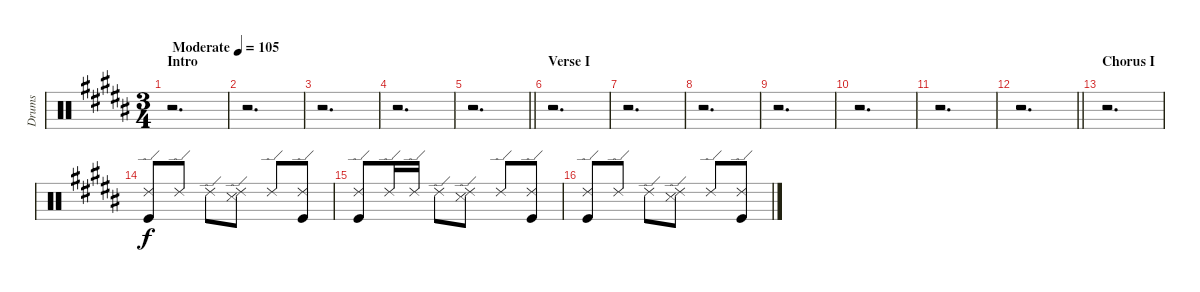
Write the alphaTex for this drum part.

\track ("Drums" "Drums") {instrument percussion}
\staff {score}
\articulation defaults
\ts (3 4)
\section ("" "Intro")
\tempo (105 "Moderate")
\clef neutral
\ks b
r.2{d dy f} |
r.2{d} |
r.2{d} |
r.2{d} |
\barLineRight lightlight
r.2{d} |
\section ("" "Verse I")
r.2{d} |
r.2{d} |
r.2{d} |
r.2{d} |
r.2{d} |
r.2{d} |
\barLineRight lightlight
r.2{d} |
\section ("" "Chorus I")
r.2{d} |
("Ride (edge) 2" "Kick (hit)").8 "Ride (edge) 2".8 "Ride (edge) 2".8 ("Ride (edge) 2" "Snare (side stick) 3").8 "Ride (edge) 2".8 ("Ride (edge) 2" "Kick (hit)").8 |
("Ride (edge) 2" "Kick (hit)").8 "Ride (edge) 2".16 "Ride (edge) 2".16 "Ride (edge) 2".8 ("Ride (edge) 2" "Snare (side stick) 3").8 "Ride (edge) 2".8 ("Ride (edge) 2" "Kick (hit)").8 |
("Ride (edge) 2" "Kick (hit)").8 "Ride (edge) 2".8 "Ride (edge) 2".8 ("Ride (edge) 2" "Snare (side stick) 3").8 "Ride (edge) 2".8 ("Ride (edge) 2" "Kick (hit)").8
